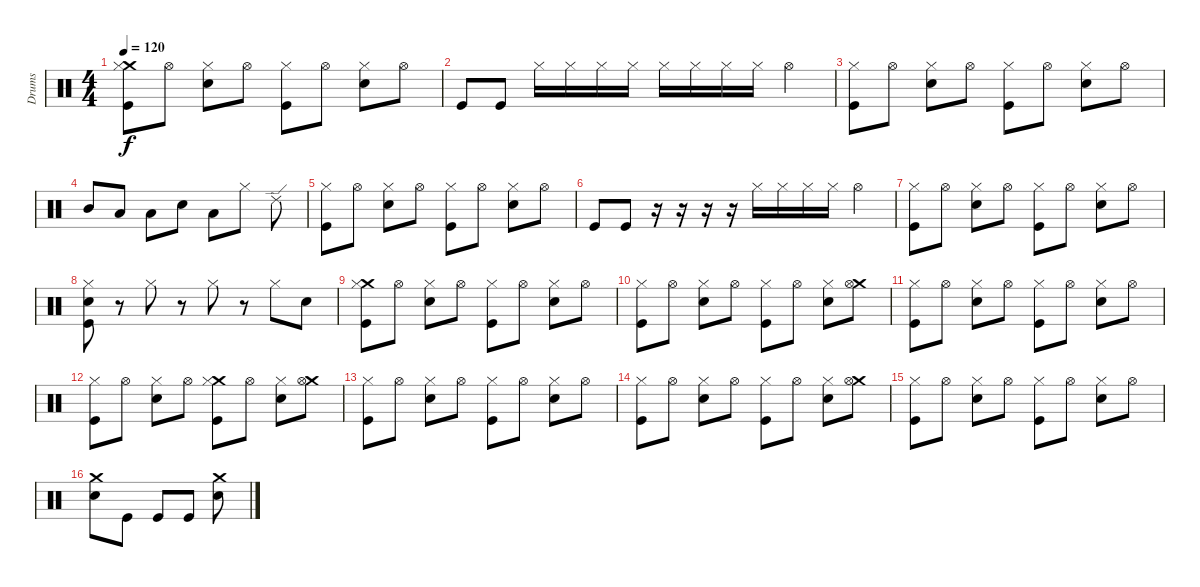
\track ("Drums" "Drums") {instrument percussion}
\staff {score}
\articulation defaults
\ts (4 4)
\tempo 120
\clef neutral
\ks c
("Crash medium (hit)" "Hi-Hat (closed)" "Kick (hit)").8{dy f} "Hi-Hat (open)".8 ("Snare (hit) 2" "Hi-Hat (closed)").8 "Hi-Hat (open)".8 ("Hi-Hat (closed)" "Kick (hit)").8 "Hi-Hat (open)".8 ("Snare (hit) 2" "Hi-Hat (closed)").8 "Hi-Hat (open)".8 |
"Kick (hit)".8 "Kick (hit)".8 "Hi-Hat (closed)".16 "Hi-Hat (closed)".16 "Hi-Hat (closed)".16 "Hi-Hat (closed)".16 "Hi-Hat (closed)".16 "Hi-Hat (closed)".16 "Hi-Hat (closed)".16 "Hi-Hat (closed)".16 "Hi-Hat (open)".4 |
("Hi-Hat (closed)" "Kick (hit)").8 "Hi-Hat (open)".8 ("Snare (hit) 2" "Hi-Hat (closed)").8 "Hi-Hat (open)".8 ("Hi-Hat (closed)" "Kick (hit)").8 "Hi-Hat (open)".8 ("Snare (hit) 2" "Hi-Hat (closed)").8 "Hi-Hat (open)".8 |
"Mid Tom (hit)".8 "Low Tom (hit)".8 "Low Floor Tom (hit)".8 "Snare (hit) 2".8 "Low Floor Tom (hit)".8 "Hi-Hat (closed)".8 "Ride (edge) 2".8 |
("Hi-Hat (closed)" "Kick (hit)").8 "Hi-Hat (open)".8 ("Snare (hit) 2" "Hi-Hat (closed)").8 "Hi-Hat (open)".8 ("Hi-Hat (closed)" "Kick (hit)").8 "Hi-Hat (open)".8 ("Snare (hit) 2" "Hi-Hat (closed)").8 "Hi-Hat (open)".8 |
"Kick (hit)".8 "Kick (hit)".8 r.16 r.16 r.16 r.16 "Hi-Hat (closed)".16 "Hi-Hat (closed)".16 "Hi-Hat (closed)".16 "Hi-Hat (closed)".16 "Hi-Hat (open)".4 |
("Hi-Hat (closed)" "Kick (hit)").8 "Hi-Hat (open)".8 ("Snare (hit) 2" "Hi-Hat (closed)").8 "Hi-Hat (open)".8 ("Hi-Hat (closed)" "Kick (hit)").8 "Hi-Hat (open)".8 ("Snare (hit) 2" "Hi-Hat (closed)").8 "Hi-Hat (open)".8 |
("Snare (hit) 2" "Hi-Hat (closed)" "Kick (hit)").8 r.8 "Hi-Hat (closed)".8 r.8 "Hi-Hat (closed)".8 r.8 "Hi-Hat (closed)".8 "Snare (hit) 2".8 |
("Crash medium (hit)" "Hi-Hat (closed)" "Kick (hit)").8 "Hi-Hat (open)".8 ("Snare (hit) 2" "Hi-Hat (closed)").8 "Hi-Hat (open)".8 ("Hi-Hat (closed)" "Kick (hit)").8 "Hi-Hat (open)".8 ("Snare (hit) 2" "Hi-Hat (closed)").8 "Hi-Hat (open)".8 |
("Hi-Hat (closed)" "Kick (hit)").8 "Hi-Hat (open)".8 ("Snare (hit) 2" "Hi-Hat (closed)").8 "Hi-Hat (open)".8 ("Hi-Hat (closed)" "Kick (hit)").8 "Hi-Hat (open)".8 ("Snare (hit) 2" "Hi-Hat (closed)").8 ("Crash medium (hit)" "Hi-Hat (open)").8 |
("Hi-Hat (closed)" "Kick (hit)").8 "Hi-Hat (open)".8 ("Snare (hit) 2" "Hi-Hat (closed)").8 "Hi-Hat (open)".8 ("Hi-Hat (closed)" "Kick (hit)").8 "Hi-Hat (open)".8 ("Snare (hit) 2" "Hi-Hat (closed)").8 "Hi-Hat (open)".8 |
("Hi-Hat (closed)" "Kick (hit)").8 "Hi-Hat (open)".8 ("Snare (hit) 2" "Hi-Hat (closed)").8 "Hi-Hat (open)".8 ("Crash medium (hit)" "Hi-Hat (closed)" "Kick (hit)").8 "Hi-Hat (open)".8 ("Snare (hit) 2" "Hi-Hat (closed)").8 ("Crash medium (hit)" "Hi-Hat (open)").8 |
("Hi-Hat (closed)" "Kick (hit)").8 "Hi-Hat (open)".8 ("Snare (hit) 2" "Hi-Hat (closed)").8 "Hi-Hat (open)".8 ("Hi-Hat (closed)" "Kick (hit)").8 "Hi-Hat (open)".8 ("Snare (hit) 2" "Hi-Hat (closed)").8 "Hi-Hat (open)".8 |
("Hi-Hat (closed)" "Kick (hit)").8 "Hi-Hat (open)".8 ("Snare (hit) 2" "Hi-Hat (closed)").8 "Hi-Hat (open)".8 ("Hi-Hat (closed)" "Kick (hit)").8 "Hi-Hat (open)".8 ("Snare (hit) 2" "Hi-Hat (closed)").8 ("Crash medium (hit)" "Hi-Hat (open)").8 |
("Hi-Hat (closed)" "Kick (hit)").8 "Hi-Hat (open)".8 ("Snare (hit) 2" "Hi-Hat (closed)").8 "Hi-Hat (open)".8 ("Hi-Hat (closed)" "Kick (hit)").8 "Hi-Hat (open)".8 ("Snare (hit) 2" "Hi-Hat (closed)").8 "Hi-Hat (open)".8 |
("Crash medium (hit)" "Snare (hit) 2").8 "Kick (hit)".8 "Kick (hit)".8 "Kick (hit)".8 ("Crash medium (hit)" "Snare (hit) 2").8
